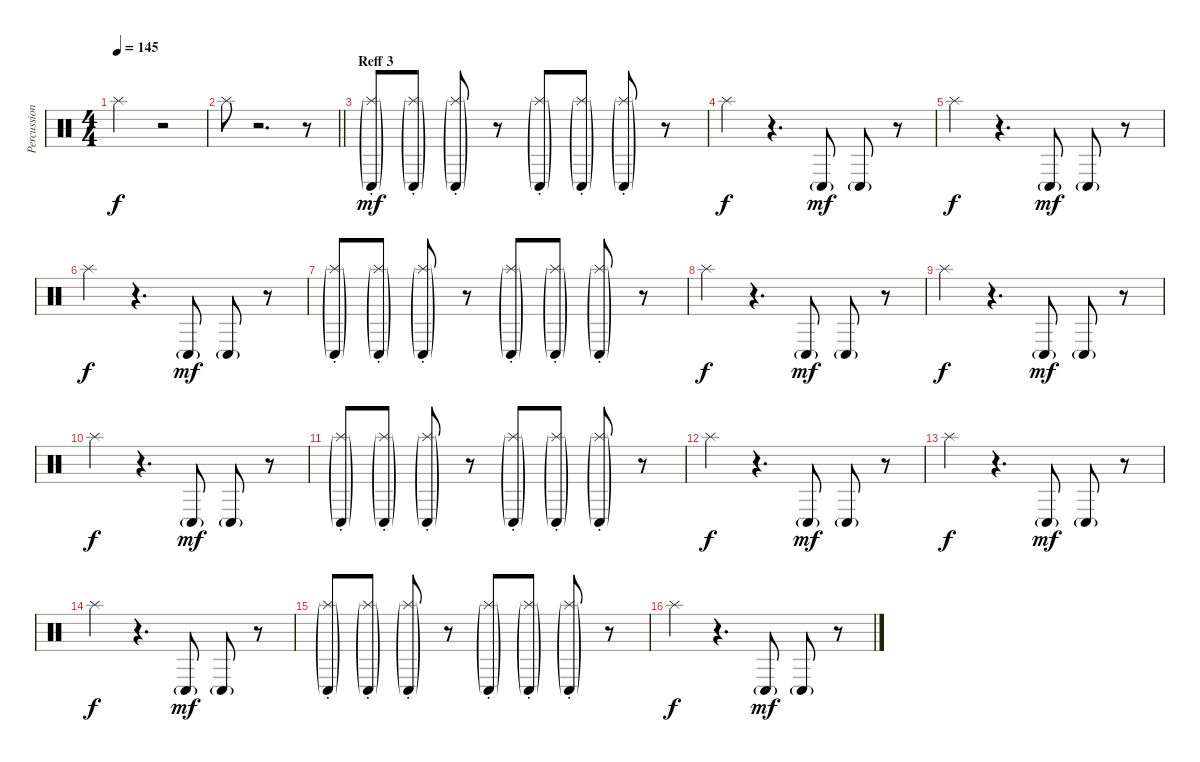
\track ("Percussion 2" "Percussion") {instrument percussion}
\staff {score}
\articulation defaults
\ts (4 4)
\tempo 145
\clef neutral
\ks c "Splash (hit)".2{dy f}
r.2 |
\barLineRight lightlight "Splash (hit)".8
r.2{d} r.8 |
\section ("" "Reff 3")
("Splash (hit)"{g st} "Conga low (hit)"{g}).8{dy mf} ("Splash (hit)"{g st} "Conga low (hit)"{g}).8 ("Splash (hit)"{g st} "Conga low (hit)"{g}).8 r.8 ("Splash (hit)"{g st} "Conga low (hit)"{g}).8 ("Splash (hit)"{g st} "Conga low (hit)"{g}).8 ("Splash (hit)"{g st} "Conga low (hit)"{g}).8 r.8 |
"Splash (hit)".4{dy f} r.4{d} "Conga low (hit)"{g}.8{dy mf} "Conga low (hit)"{g}.8 r.8 |
"Splash (hit)".4{dy f} r.4{d} "Conga low (hit)"{g}.8{dy mf} "Conga low (hit)"{g}.8 r.8 |
"Splash (hit)".4{dy f} r.4{d} "Conga low (hit)"{g}.8{dy mf} "Conga low (hit)"{g}.8 r.8 |
("Splash (hit)"{g st} "Conga low (hit)"{g}).8 ("Splash (hit)"{g st} "Conga low (hit)"{g}).8 ("Splash (hit)"{g st} "Conga low (hit)"{g}).8 r.8 ("Splash (hit)"{g st} "Conga low (hit)"{g}).8 ("Splash (hit)"{g st} "Conga low (hit)"{g}).8 ("Splash (hit)"{g st} "Conga low (hit)"{g}).8 r.8 |
"Splash (hit)".4{dy f} r.4{d} "Conga low (hit)"{g}.8{dy mf} "Conga low (hit)"{g}.8 r.8 |
"Splash (hit)".4{dy f} r.4{d} "Conga low (hit)"{g}.8{dy mf} "Conga low (hit)"{g}.8 r.8 |
"Splash (hit)".4{dy f} r.4{d} "Conga low (hit)"{g}.8{dy mf} "Conga low (hit)"{g}.8 r.8 |
("Splash (hit)"{g st} "Conga low (hit)"{g}).8 ("Splash (hit)"{g st} "Conga low (hit)"{g}).8 ("Splash (hit)"{g st} "Conga low (hit)"{g}).8 r.8 ("Splash (hit)"{g st} "Conga low (hit)"{g}).8 ("Splash (hit)"{g st} "Conga low (hit)"{g}).8 ("Splash (hit)"{g st} "Conga low (hit)"{g}).8 r.8 |
"Splash (hit)".4{dy f} r.4{d} "Conga low (hit)"{g}.8{dy mf} "Conga low (hit)"{g}.8 r.8 |
"Splash (hit)".4{dy f} r.4{d} "Conga low (hit)"{g}.8{dy mf} "Conga low (hit)"{g}.8 r.8 |
"Splash (hit)".4{dy f} r.4{d} "Conga low (hit)"{g}.8{dy mf} "Conga low (hit)"{g}.8 r.8 |
("Splash (hit)"{g st} "Conga low (hit)"{g}).8 ("Splash (hit)"{g st} "Conga low (hit)"{g}).8 ("Splash (hit)"{g st} "Conga low (hit)"{g}).8 r.8 ("Splash (hit)"{g st} "Conga low (hit)"{g}).8 ("Splash (hit)"{g st} "Conga low (hit)"{g}).8 ("Splash (hit)"{g st} "Conga low (hit)"{g}).8 r.8 |
"Splash (hit)".4{dy f} r.4{d} "Conga low (hit)"{g}.8{dy mf} "Conga low (hit)"{g}.8 r.8
